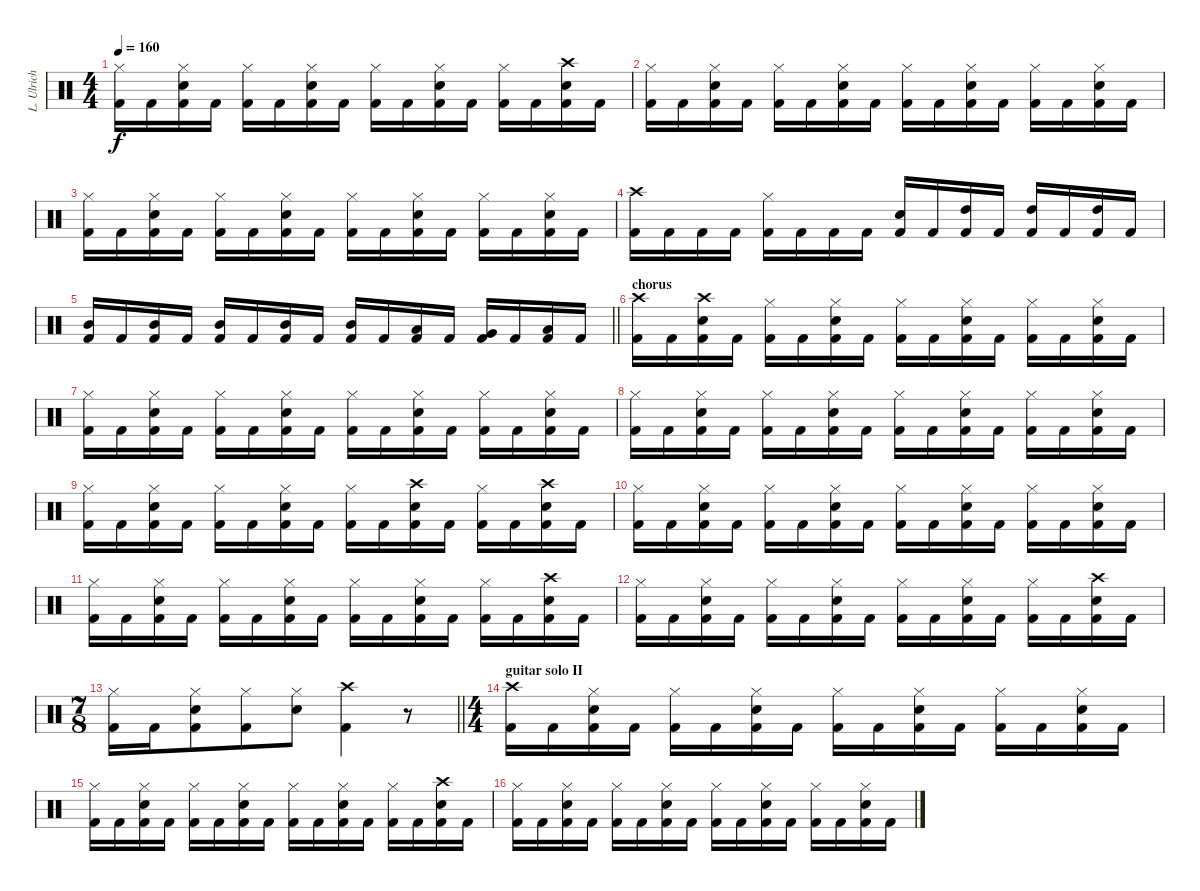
\track ("L. Ulrich - Drums" "L. Ulrich ") {instrument percussion}
\staff {score}
\articulation defaults
\ts (4 4)
\tempo 160
\clef neutral
\ks c
("Hi-Hat (closed)" "Kick (hit) 2").16{dy f} "Kick (hit) 2".16 ("Hi-Hat (closed)" "Snare (hit) 2" "Kick (hit) 2").16 "Kick (hit) 2".16 ("Hi-Hat (closed)" "Kick (hit) 2").16 "Kick (hit) 2".16 ("Hi-Hat (closed)" "Snare (hit) 2" "Kick (hit) 2").16 "Kick (hit) 2".16 ("Hi-Hat (closed)" "Kick (hit) 2").16 "Kick (hit) 2".16 ("Hi-Hat (closed)" "Snare (hit) 2" "Kick (hit) 2").16 "Kick (hit) 2".16 ("Hi-Hat (closed)" "Kick (hit) 2").16 "Kick (hit) 2".16 ("Crash high (hit)" "Snare (hit) 2" "Kick (hit) 2").16 "Kick (hit) 2".16 |
("Hi-Hat (closed)" "Kick (hit) 2").16 "Kick (hit) 2".16 ("Hi-Hat (closed)" "Snare (hit) 2" "Kick (hit) 2").16 "Kick (hit) 2".16 ("Hi-Hat (closed)" "Kick (hit) 2").16 "Kick (hit) 2".16 ("Hi-Hat (closed)" "Snare (hit) 2" "Kick (hit) 2").16 "Kick (hit) 2".16 ("Hi-Hat (closed)" "Kick (hit) 2").16 "Kick (hit) 2".16 ("Hi-Hat (closed)" "Snare (hit) 2" "Kick (hit) 2").16 "Kick (hit) 2".16 ("Hi-Hat (closed)" "Kick (hit) 2").16 "Kick (hit) 2".16 ("Hi-Hat (closed)" "Snare (hit) 2" "Kick (hit) 2").16 "Kick (hit) 2".16 |
("Hi-Hat (closed)" "Kick (hit) 2").16 "Kick (hit) 2".16 ("Hi-Hat (closed)" "Snare (hit) 2" "Kick (hit) 2").16 "Kick (hit) 2".16 ("Hi-Hat (closed)" "Kick (hit) 2").16 "Kick (hit) 2".16 ("Hi-Hat (closed)" "Snare (hit) 2" "Kick (hit) 2").16 "Kick (hit) 2".16 ("Hi-Hat (closed)" "Kick (hit) 2").16 "Kick (hit) 2".16 ("Hi-Hat (closed)" "Snare (hit) 2" "Kick (hit) 2").16 "Kick (hit) 2".16 ("Hi-Hat (closed)" "Kick (hit) 2").16 "Kick (hit) 2".16 ("Hi-Hat (closed)" "Snare (hit) 2" "Kick (hit) 2").16 "Kick (hit) 2".16 |
("Crash high (hit)" "Kick (hit) 2").16 "Kick (hit) 2".16 "Kick (hit) 2".16 "Kick (hit) 2".16 ("Hi-Hat (closed)" "Kick (hit) 2").16 "Kick (hit) 2".16 "Kick (hit) 2".16 "Kick (hit) 2".16 ("Snare (hit) 2" "Kick (hit) 2").16 "Kick (hit) 2".16 ("High Tom (hit)" "Kick (hit) 2").16 "Kick (hit) 2".16 ("High Tom (hit)" "Kick (hit) 2").16 "Kick (hit) 2".16 ("High Tom (hit)" "Kick (hit) 2").16 "Kick (hit) 2".16 |
\barLineRight lightlight
("Mid Tom (hit)" "Kick (hit) 2").16 "Kick (hit) 2".16 ("Mid Tom (hit)" "Kick (hit) 2").16 "Kick (hit) 2".16 ("Mid Tom (hit)" "Kick (hit) 2").16 "Kick (hit) 2".16 ("Mid Tom (hit)" "Kick (hit) 2").16 "Kick (hit) 2".16 ("Mid Tom (hit)" "Kick (hit) 2").16 "Kick (hit) 2".16 ("Low Tom (hit)" "Kick (hit) 2").16 "Kick (hit) 2".16 ("Very Low Tom (hit)" "Kick (hit) 2").16 "Kick (hit) 2".16 ("Low Floor Tom (hit)" "Kick (hit) 2").16 "Kick (hit) 2".16 |
\section ("" "chorus")
("Crash high (hit)" "Kick (hit) 2").16 "Kick (hit) 2".16 ("Crash high (hit)" "Snare (hit) 2" "Kick (hit) 2").16 "Kick (hit) 2".16 ("Hi-Hat (closed)" "Kick (hit) 2").16 "Kick (hit) 2".16 ("Hi-Hat (closed)" "Snare (hit) 2" "Kick (hit) 2").16 "Kick (hit) 2".16 ("Hi-Hat (closed)" "Kick (hit) 2").16 "Kick (hit) 2".16 ("Hi-Hat (closed)" "Snare (hit) 2" "Kick (hit) 2").16 "Kick (hit) 2".16 ("Hi-Hat (closed)" "Kick (hit) 2").16 "Kick (hit) 2".16 ("Hi-Hat (closed)" "Snare (hit) 2" "Kick (hit) 2").16 "Kick (hit) 2".16 |
("Hi-Hat (closed)" "Kick (hit) 2").16 "Kick (hit) 2".16 ("Hi-Hat (closed)" "Snare (hit) 2" "Kick (hit) 2").16 "Kick (hit) 2".16 ("Hi-Hat (closed)" "Kick (hit) 2").16 "Kick (hit) 2".16 ("Hi-Hat (closed)" "Snare (hit) 2" "Kick (hit) 2").16 "Kick (hit) 2".16 ("Hi-Hat (closed)" "Kick (hit) 2").16 "Kick (hit) 2".16 ("Hi-Hat (closed)" "Snare (hit) 2" "Kick (hit) 2").16 "Kick (hit) 2".16 ("Hi-Hat (closed)" "Kick (hit) 2").16 "Kick (hit) 2".16 ("Hi-Hat (closed)" "Snare (hit) 2" "Kick (hit) 2").16 "Kick (hit) 2".16 |
("Hi-Hat (closed)" "Kick (hit) 2").16 "Kick (hit) 2".16 ("Hi-Hat (closed)" "Snare (hit) 2" "Kick (hit) 2").16 "Kick (hit) 2".16 ("Hi-Hat (closed)" "Kick (hit) 2").16 "Kick (hit) 2".16 ("Hi-Hat (closed)" "Snare (hit) 2" "Kick (hit) 2").16 "Kick (hit) 2".16 ("Hi-Hat (closed)" "Kick (hit) 2").16 "Kick (hit) 2".16 ("Hi-Hat (closed)" "Snare (hit) 2" "Kick (hit) 2").16 "Kick (hit) 2".16 ("Hi-Hat (closed)" "Kick (hit) 2").16 "Kick (hit) 2".16 ("Hi-Hat (closed)" "Snare (hit) 2" "Kick (hit) 2").16 "Kick (hit) 2".16 |
("Hi-Hat (closed)" "Kick (hit) 2").16 "Kick (hit) 2".16 ("Hi-Hat (closed)" "Snare (hit) 2" "Kick (hit) 2").16 "Kick (hit) 2".16 ("Hi-Hat (closed)" "Kick (hit) 2").16 "Kick (hit) 2".16 ("Hi-Hat (closed)" "Snare (hit) 2" "Kick (hit) 2").16 "Kick (hit) 2".16 ("Hi-Hat (closed)" "Kick (hit) 2").16 "Kick (hit) 2".16 ("Crash high (hit)" "Snare (hit) 2" "Kick (hit) 2").16 "Kick (hit) 2".16 ("Hi-Hat (closed)" "Kick (hit) 2").16 "Kick (hit) 2".16 ("Crash high (hit)" "Snare (hit) 2" "Kick (hit) 2").16 "Kick (hit) 2".16 |
("Hi-Hat (closed)" "Kick (hit) 2").16 "Kick (hit) 2".16 ("Hi-Hat (closed)" "Snare (hit) 2" "Kick (hit) 2").16 "Kick (hit) 2".16 ("Hi-Hat (closed)" "Kick (hit) 2").16 "Kick (hit) 2".16 ("Hi-Hat (closed)" "Snare (hit) 2" "Kick (hit) 2").16 "Kick (hit) 2".16 ("Hi-Hat (closed)" "Kick (hit) 2").16 "Kick (hit) 2".16 ("Hi-Hat (closed)" "Snare (hit) 2" "Kick (hit) 2").16 "Kick (hit) 2".16 ("Hi-Hat (closed)" "Kick (hit) 2").16 "Kick (hit) 2".16 ("Hi-Hat (closed)" "Snare (hit) 2" "Kick (hit) 2").16 "Kick (hit) 2".16 |
("Hi-Hat (closed)" "Kick (hit) 2").16 "Kick (hit) 2".16 ("Hi-Hat (closed)" "Snare (hit) 2" "Kick (hit) 2").16 "Kick (hit) 2".16 ("Hi-Hat (closed)" "Kick (hit) 2").16 "Kick (hit) 2".16 ("Hi-Hat (closed)" "Snare (hit) 2" "Kick (hit) 2").16 "Kick (hit) 2".16 ("Hi-Hat (closed)" "Kick (hit) 2").16 "Kick (hit) 2".16 ("Hi-Hat (closed)" "Snare (hit) 2" "Kick (hit) 2").16 "Kick (hit) 2".16 ("Hi-Hat (closed)" "Kick (hit) 2").16 "Kick (hit) 2".16 ("Crash high (hit)" "Snare (hit) 2" "Kick (hit) 2").16 "Kick (hit) 2".16 |
("Hi-Hat (closed)" "Kick (hit) 2").16 "Kick (hit) 2".16 ("Hi-Hat (closed)" "Snare (hit) 2" "Kick (hit) 2").16 "Kick (hit) 2".16 ("Hi-Hat (closed)" "Kick (hit) 2").16 "Kick (hit) 2".16 ("Hi-Hat (closed)" "Snare (hit) 2" "Kick (hit) 2").16 "Kick (hit) 2".16 ("Hi-Hat (closed)" "Kick (hit) 2").16 "Kick (hit) 2".16 ("Hi-Hat (closed)" "Snare (hit) 2" "Kick (hit) 2").16 "Kick (hit) 2".16 ("Hi-Hat (closed)" "Kick (hit) 2").16 "Kick (hit) 2".16 ("Crash high (hit)" "Snare (hit) 2" "Kick (hit) 2").16 "Kick (hit) 2".16 |
\ts (7 8)
\barLineRight lightlight
("Hi-Hat (closed)" "Kick (hit) 2").16 "Kick (hit) 2".16 ("Hi-Hat (closed)" "Snare (hit) 2" "Kick (hit) 2").8 ("Hi-Hat (closed)" "Kick (hit) 2").8 ("Hi-Hat (closed)" "Snare (hit) 2").8 ("Crash high (hit)" "Kick (hit) 2").4 r.8 |
\ts (4 4)
\section ("" "guitar solo II")
("Crash high (hit)" "Kick (hit) 2").16 "Kick (hit) 2".16 ("Hi-Hat (closed)" "Snare (hit) 2" "Kick (hit) 2").16 "Kick (hit) 2".16 ("Hi-Hat (closed)" "Kick (hit) 2").16 "Kick (hit) 2".16 ("Hi-Hat (closed)" "Snare (hit) 2" "Kick (hit) 2").16 "Kick (hit) 2".16 ("Hi-Hat (closed)" "Kick (hit) 2").16 "Kick (hit) 2".16 ("Hi-Hat (closed)" "Snare (hit) 2" "Kick (hit) 2").16 "Kick (hit) 2".16 ("Hi-Hat (closed)" "Kick (hit) 2").16 "Kick (hit) 2".16 ("Hi-Hat (closed)" "Snare (hit) 2" "Kick (hit) 2").16 "Kick (hit) 2".16 |
("Hi-Hat (closed)" "Kick (hit) 2").16 "Kick (hit) 2".16 ("Hi-Hat (closed)" "Snare (hit) 2" "Kick (hit) 2").16 "Kick (hit) 2".16 ("Hi-Hat (closed)" "Kick (hit) 2").16 "Kick (hit) 2".16 ("Hi-Hat (closed)" "Snare (hit) 2" "Kick (hit) 2").16 "Kick (hit) 2".16 ("Hi-Hat (closed)" "Kick (hit) 2").16 "Kick (hit) 2".16 ("Hi-Hat (closed)" "Snare (hit) 2" "Kick (hit) 2").16 "Kick (hit) 2".16 ("Hi-Hat (closed)" "Kick (hit) 2").16 "Kick (hit) 2".16 ("Crash high (hit)" "Snare (hit) 2" "Kick (hit) 2").16 "Kick (hit) 2".16 |
("Hi-Hat (closed)" "Kick (hit) 2").16 "Kick (hit) 2".16 ("Hi-Hat (closed)" "Snare (hit) 2" "Kick (hit) 2").16 "Kick (hit) 2".16 ("Hi-Hat (closed)" "Kick (hit) 2").16 "Kick (hit) 2".16 ("Hi-Hat (closed)" "Snare (hit) 2" "Kick (hit) 2").16 "Kick (hit) 2".16 ("Hi-Hat (closed)" "Kick (hit) 2").16 "Kick (hit) 2".16 ("Hi-Hat (closed)" "Snare (hit) 2" "Kick (hit) 2").16 "Kick (hit) 2".16 ("Hi-Hat (closed)" "Kick (hit) 2").16 "Kick (hit) 2".16 ("Hi-Hat (closed)" "Snare (hit) 2" "Kick (hit) 2").16 "Kick (hit) 2".16
